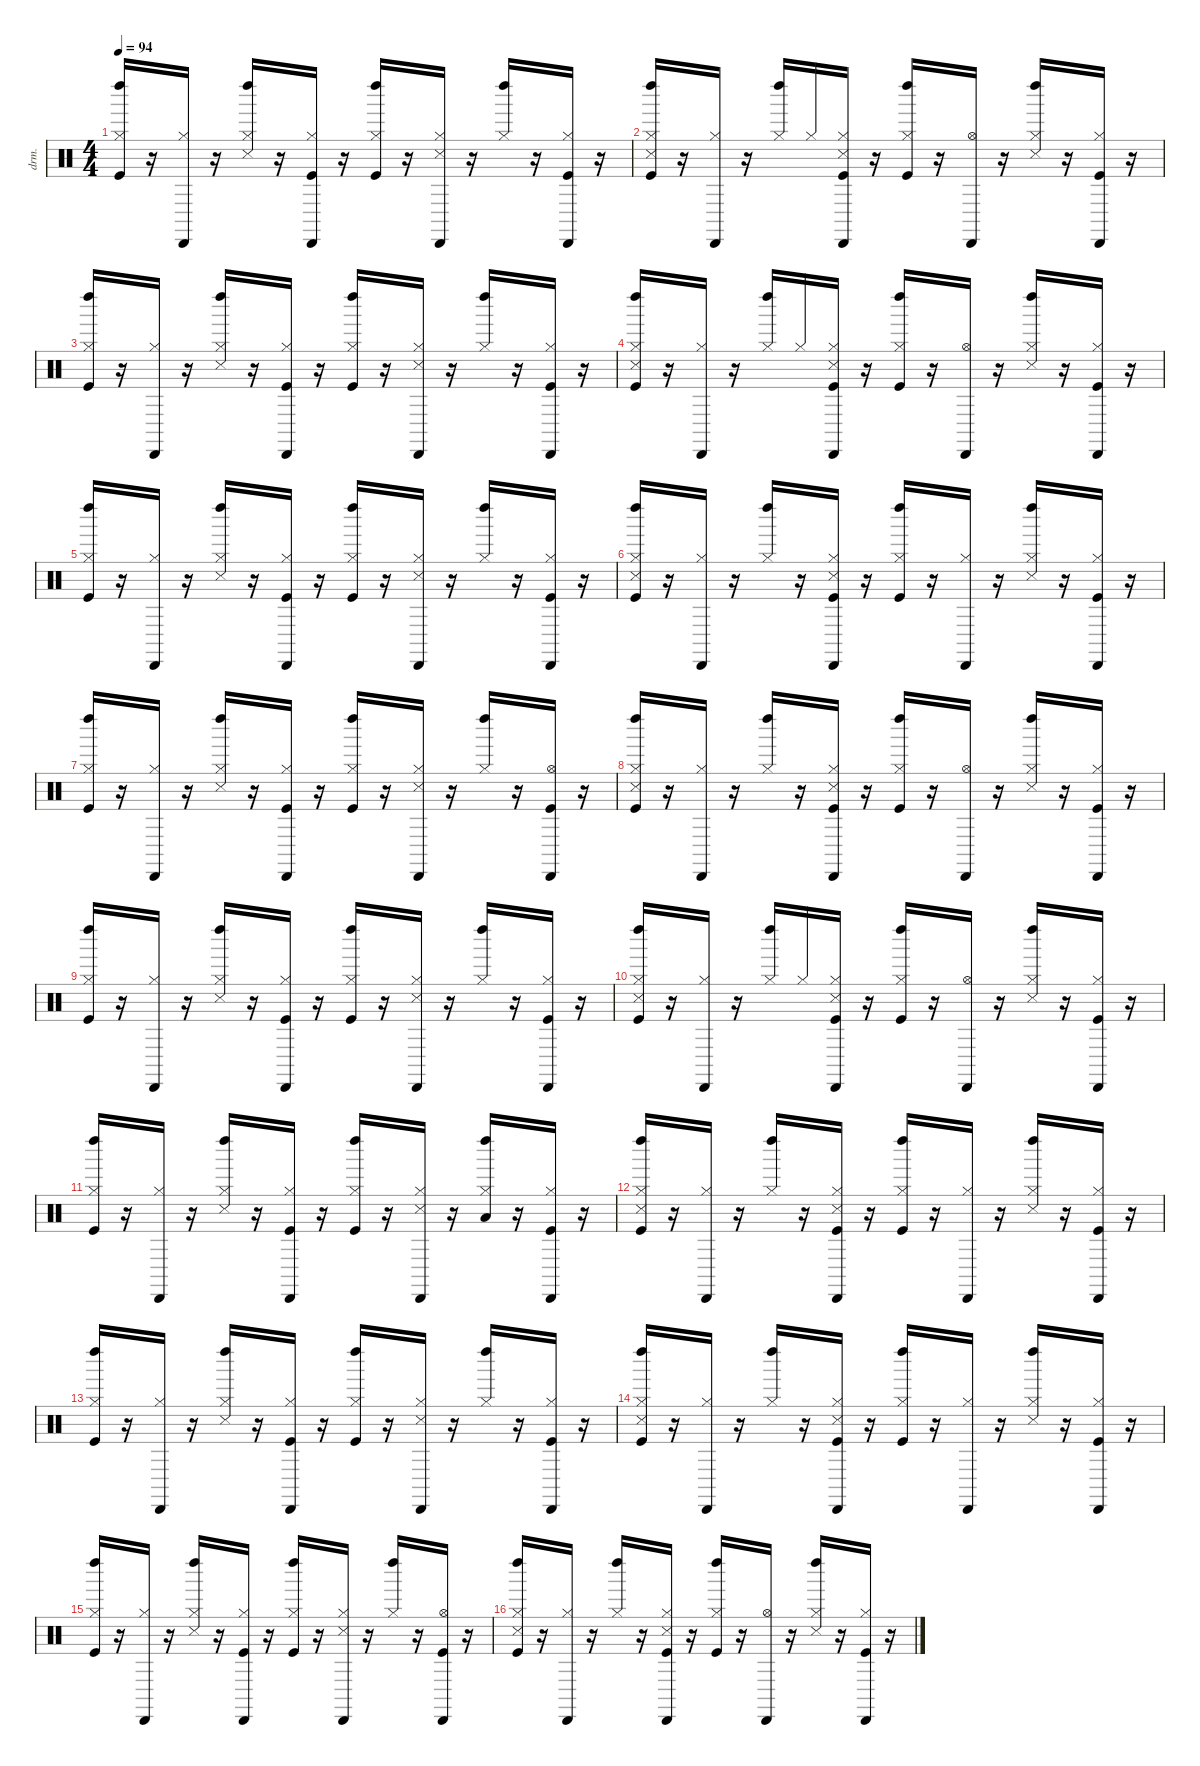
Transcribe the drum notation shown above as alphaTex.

\defaultSystemsLayout 4
\hideDynamics
\bracketExtendMode nobrackets
\otherSystemsTrackNameOrientation horizontal
\track ("Drums" "drm.") {instrument percussion}
\staff {score}
\articulation defaults
\ts (4 4)
\tempo 94
\clef neutral
\ks c
("Left Maraca (hit)" "Hi-Hat (closed)" "Kick (hit)").16{dy mf beam Up} r.16{beam Up} ("Cabasa (hit)" "Hi-Hat (closed)").16{dy p beam Up} r.16{beam Up} ("Left Maraca (hit)" "Hi-Hat (closed)" "Snare (side stick) 3").16{dy mf beam Up} r.16{beam Up} ("Cabasa (hit)" "Hi-Hat (closed)" "Kick (hit)").16{dy p beam Up} r.16{beam Up} ("Left Maraca (hit)" "Hi-Hat (closed)" "Kick (hit)").16{dy mf beam Up} r.16{beam Up} ("Cabasa (hit)" "Hi-Hat (closed)" "Snare (side stick) 3").16{dy p beam Up} r.16{beam Up} ("Left Maraca (hit)" "Hi-Hat (closed)").16{dy mf beam Up} r.16{beam Up} ("Cabasa (hit)" "Hi-Hat (closed)" "Kick (hit)").16{dy p beam Up} r.16{beam Up} |
("Left Maraca (hit)" "Hi-Hat (closed)" "Snare (side stick) 3" "Kick (hit)").16{dy mf beam Up} r.16{beam Up} ("Cabasa (hit)" "Hi-Hat (closed)").16{dy p beam Up} r.16{beam Up} ("Left Maraca (hit)" "Hi-Hat (closed)").16{dy mf beam Up} "Hi-Hat (closed)".16{beam Up} ("Cabasa (hit)" "Hi-Hat (closed)" "Snare (side stick) 3" "Kick (hit)").16{dy p beam Up} r.16{beam Up} ("Left Maraca (hit)" "Hi-Hat (closed)" "Kick (hit)").16{dy mf beam Up} r.16{beam Up} ("Cabasa (hit)" "Hi-Hat (open)").16{dy p beam Up} r.16{beam Up} ("Left Maraca (hit)" "Hi-Hat (closed)" "Snare (side stick) 3").16{dy mf beam Up} r.16{beam Up} ("Cabasa (hit)" "Hi-Hat (closed)" "Kick (hit)").16{dy p beam Up} r.16{beam Up} |
("Left Maraca (hit)" "Hi-Hat (closed)" "Kick (hit)").16{dy mf beam Up} r.16{beam Up} ("Cabasa (hit)" "Hi-Hat (closed)").16{dy p beam Up} r.16{beam Up} ("Left Maraca (hit)" "Hi-Hat (closed)" "Snare (side stick) 3").16{dy mf beam Up} r.16{beam Up} ("Cabasa (hit)" "Hi-Hat (closed)" "Kick (hit)").16{dy p beam Up} r.16{beam Up} ("Left Maraca (hit)" "Hi-Hat (closed)" "Kick (hit)").16{dy mf beam Up} r.16{beam Up} ("Cabasa (hit)" "Hi-Hat (closed)" "Snare (side stick) 3").16{dy p beam Up} r.16{beam Up} ("Left Maraca (hit)" "Hi-Hat (closed)").16{dy mf beam Up} r.16{beam Up} ("Cabasa (hit)" "Hi-Hat (closed)" "Kick (hit)").16{dy p beam Up} r.16{beam Up} |
("Left Maraca (hit)" "Hi-Hat (closed)" "Snare (side stick) 3" "Kick (hit)").16{dy mf beam Up} r.16{beam Up} ("Cabasa (hit)" "Hi-Hat (closed)").16{dy p beam Up} r.16{beam Up} ("Left Maraca (hit)" "Hi-Hat (closed)").16{dy mf beam Up} "Hi-Hat (closed)".16{beam Up} ("Cabasa (hit)" "Hi-Hat (closed)" "Snare (side stick) 3" "Kick (hit)").16{dy p beam Up} r.16{beam Up} ("Left Maraca (hit)" "Hi-Hat (closed)" "Kick (hit)").16{dy mf beam Up} r.16{beam Up} ("Cabasa (hit)" "Hi-Hat (open)").16{dy p beam Up} r.16{beam Up} ("Left Maraca (hit)" "Hi-Hat (closed)" "Snare (side stick) 3").16{dy mf beam Up} r.16{beam Up} ("Cabasa (hit)" "Hi-Hat (closed)" "Kick (hit)").16{dy p beam Up} r.16{beam Up} |
("Left Maraca (hit)" "Hi-Hat (closed)" "Kick (hit)").16{dy mf beam Up} r.16{beam Up} ("Cabasa (hit)" "Hi-Hat (closed)").16{dy p beam Up} r.16{beam Up} ("Left Maraca (hit)" "Hi-Hat (closed)" "Snare (side stick) 3").16{dy mf beam Up} r.16{beam Up} ("Cabasa (hit)" "Hi-Hat (closed)" "Kick (hit)").16{dy p beam Up} r.16{beam Up} ("Left Maraca (hit)" "Hi-Hat (closed)" "Kick (hit)").16{dy mf beam Up} r.16{beam Up} ("Cabasa (hit)" "Hi-Hat (closed)" "Snare (side stick) 3").16{dy p beam Up} r.16{beam Up} ("Left Maraca (hit)" "Hi-Hat (closed)").16{dy mf beam Up} r.16{beam Up} ("Cabasa (hit)" "Hi-Hat (closed)" "Kick (hit)").16{dy p beam Up} r.16{beam Up} |
("Left Maraca (hit)" "Hi-Hat (closed)" "Snare (side stick) 3" "Kick (hit)").16{dy mf beam Up} r.16{beam Up} ("Cabasa (hit)" "Hi-Hat (closed)").16{dy p beam Up} r.16{beam Up} ("Left Maraca (hit)" "Hi-Hat (closed)").16{dy mf beam Up} r.16{beam Up} ("Cabasa (hit)" "Hi-Hat (closed)" "Snare (side stick) 3" "Kick (hit)").16{dy p beam Up} r.16{beam Up} ("Left Maraca (hit)" "Hi-Hat (closed)" "Kick (hit)").16{dy mf beam Up} r.16{beam Up} ("Cabasa (hit)" "Hi-Hat (closed)").16{dy p beam Up} r.16{beam Up} ("Left Maraca (hit)" "Hi-Hat (closed)" "Snare (side stick) 3").16{dy mf beam Up} r.16{beam Up} ("Cabasa (hit)" "Hi-Hat (closed)" "Kick (hit)").16{dy p beam Up} r.16{beam Up} |
("Left Maraca (hit)" "Hi-Hat (closed)" "Kick (hit)").16{dy mf beam Up} r.16{beam Up} ("Cabasa (hit)" "Hi-Hat (closed)").16{dy p beam Up} r.16{beam Up} ("Left Maraca (hit)" "Hi-Hat (closed)" "Snare (side stick) 3").16{dy mf beam Up} r.16{beam Up} ("Cabasa (hit)" "Hi-Hat (closed)" "Kick (hit)").16{dy p beam Up} r.16{beam Up} ("Left Maraca (hit)" "Hi-Hat (closed)" "Kick (hit)").16{dy mf beam Up} r.16{beam Up} ("Cabasa (hit)" "Hi-Hat (closed)" "Snare (side stick) 3").16{dy p beam Up} r.16{beam Up} ("Left Maraca (hit)" "Hi-Hat (closed)").16{dy mf beam Up} r.16{beam Up} ("Cabasa (hit)" "Hi-Hat (open)" "Kick (hit)").16{dy p beam Up} r.16{beam Up} |
("Left Maraca (hit)" "Hi-Hat (closed)" "Snare (side stick) 3" "Kick (hit)").16{dy mf beam Up} r.16{beam Up} ("Cabasa (hit)" "Hi-Hat (closed)").16{dy p beam Up} r.16{beam Up} ("Left Maraca (hit)" "Hi-Hat (closed)").16{dy mf beam Up} r.16{beam Up} ("Cabasa (hit)" "Hi-Hat (closed)" "Snare (side stick) 3" "Kick (hit)").16{dy p beam Up} r.16{beam Up} ("Left Maraca (hit)" "Hi-Hat (closed)" "Kick (hit)").16{dy mf beam Up} r.16{beam Up} ("Cabasa (hit)" "Hi-Hat (open)").16{dy p beam Up} r.16{beam Up} ("Left Maraca (hit)" "Hi-Hat (closed)" "Snare (side stick) 3").16{dy mf beam Up} r.16{beam Up} ("Cabasa (hit)" "Hi-Hat (closed)" "Kick (hit)").16{dy p beam Up} r.16{beam Up} |
("Left Maraca (hit)" "Hi-Hat (closed)" "Kick (hit)").16{dy mf beam Up} r.16{beam Up} ("Cabasa (hit)" "Hi-Hat (closed)").16{dy p beam Up} r.16{beam Up} ("Left Maraca (hit)" "Hi-Hat (closed)" "Snare (side stick) 3").16{dy mf beam Up} r.16{beam Up} ("Cabasa (hit)" "Hi-Hat (closed)" "Kick (hit)").16{dy p beam Up} r.16{beam Up} ("Left Maraca (hit)" "Hi-Hat (closed)" "Kick (hit)").16{dy mf beam Up} r.16{beam Up} ("Cabasa (hit)" "Hi-Hat (closed)" "Snare (side stick) 3").16{dy p beam Up} r.16{beam Up} ("Left Maraca (hit)" "Hi-Hat (closed)").16{dy mf beam Up} r.16{beam Up} ("Cabasa (hit)" "Hi-Hat (closed)" "Kick (hit)").16{dy p beam Up} r.16{beam Up} |
("Left Maraca (hit)" "Hi-Hat (closed)" "Snare (side stick) 3" "Kick (hit)").16{dy mf beam Up} r.16{beam Up} ("Cabasa (hit)" "Hi-Hat (closed)").16{dy p beam Up} r.16{beam Up} ("Left Maraca (hit)" "Hi-Hat (closed)").16{dy mf beam Up} "Hi-Hat (closed)".16{beam Up} ("Cabasa (hit)" "Hi-Hat (closed)" "Snare (side stick) 3" "Kick (hit)").16{dy p beam Up} r.16{beam Up} ("Left Maraca (hit)" "Hi-Hat (closed)" "Kick (hit)").16{dy mf beam Up} r.16{beam Up} ("Cabasa (hit)" "Hi-Hat (open)").16{dy p beam Up} r.16{beam Up} ("Left Maraca (hit)" "Hi-Hat (closed)" "Snare (side stick) 3").16{dy mf beam Up} r.16{beam Up} ("Cabasa (hit)" "Hi-Hat (closed)" "Kick (hit)").16{dy p beam Up} r.16{beam Up} |
("Left Maraca (hit)" "Hi-Hat (closed)" "Kick (hit)").16{dy mf beam Up} r.16{beam Up} ("Cabasa (hit)" "Hi-Hat (closed)").16{dy p beam Up} r.16{beam Up} ("Left Maraca (hit)" "Hi-Hat (closed)" "Snare (side stick) 3").16{dy mf beam Up} r.16{beam Up} ("Cabasa (hit)" "Hi-Hat (closed)" "Kick (hit)").16{dy p beam Up} r.16{beam Up} ("Left Maraca (hit)" "Hi-Hat (closed)" "Kick (hit)").16{dy mf beam Up} r.16{beam Up} ("Cabasa (hit)" "Hi-Hat (closed)" "Snare (side stick) 3").16{dy p beam Up} r.16{beam Up} ("Left Maraca (hit)" "Low Tom (hit)" "Hi-Hat (closed)").16{dy mf beam Up} r.16{beam Up} ("Cabasa (hit)" "Hi-Hat (closed)" "Kick (hit)").16{dy p beam Up} r.16{beam Up} |
("Left Maraca (hit)" "Hi-Hat (closed)" "Snare (side stick) 3" "Kick (hit)").16{dy mf beam Up} r.16{beam Up} ("Cabasa (hit)" "Hi-Hat (closed)").16{dy p beam Up} r.16{beam Up} ("Left Maraca (hit)" "Hi-Hat (closed)").16{dy mf beam Up} r.16{beam Up} ("Cabasa (hit)" "Hi-Hat (closed)" "Snare (side stick) 3" "Kick (hit)").16{dy p beam Up} r.16{beam Up} ("Left Maraca (hit)" "Hi-Hat (closed)" "Kick (hit)").16{dy mf beam Up} r.16{beam Up} ("Cabasa (hit)" "Hi-Hat (closed)").16{dy p beam Up} r.16{beam Up} ("Left Maraca (hit)" "Hi-Hat (closed)" "Snare (side stick) 3").16{dy mf beam Up} r.16{beam Up} ("Cabasa (hit)" "Hi-Hat (closed)" "Kick (hit)").16{dy p beam Up} r.16{beam Up} |
("Left Maraca (hit)" "Hi-Hat (closed)" "Kick (hit)").16{dy mf beam Up} r.16{beam Up} ("Cabasa (hit)" "Hi-Hat (closed)").16{dy p beam Up} r.16{beam Up} ("Left Maraca (hit)" "Hi-Hat (closed)" "Snare (side stick) 3").16{dy mf beam Up} r.16{beam Up} ("Cabasa (hit)" "Hi-Hat (closed)" "Kick (hit)").16{dy p beam Up} r.16{beam Up} ("Left Maraca (hit)" "Hi-Hat (closed)" "Kick (hit)").16{dy mf beam Up} r.16{beam Up} ("Cabasa (hit)" "Hi-Hat (closed)" "Snare (side stick) 3").16{dy p beam Up} r.16{beam Up} ("Left Maraca (hit)" "Hi-Hat (closed)").16{dy mf beam Up} r.16{beam Up} ("Cabasa (hit)" "Hi-Hat (closed)" "Kick (hit)").16{dy p beam Up} r.16{beam Up} |
("Left Maraca (hit)" "Hi-Hat (closed)" "Snare (side stick) 3" "Kick (hit)").16{dy mf beam Up} r.16{beam Up} ("Cabasa (hit)" "Hi-Hat (closed)").16{dy p beam Up} r.16{beam Up} ("Left Maraca (hit)" "Hi-Hat (closed)").16{dy mf beam Up} r.16{beam Up} ("Cabasa (hit)" "Hi-Hat (closed)" "Snare (side stick) 3" "Kick (hit)").16{dy p beam Up} r.16{beam Up} ("Left Maraca (hit)" "Hi-Hat (closed)" "Kick (hit)").16{dy mf beam Up} r.16{beam Up} ("Cabasa (hit)" "Hi-Hat (closed)").16{dy p beam Up} r.16{beam Up} ("Left Maraca (hit)" "Hi-Hat (closed)" "Snare (side stick) 3").16{dy mf beam Up} r.16{beam Up} ("Cabasa (hit)" "Hi-Hat (closed)" "Kick (hit)").16{dy p beam Up} r.16{beam Up} |
("Left Maraca (hit)" "Hi-Hat (closed)" "Kick (hit)").16{dy mf beam Up} r.16{beam Up} ("Cabasa (hit)" "Hi-Hat (closed)").16{dy p beam Up} r.16{beam Up} ("Left Maraca (hit)" "Hi-Hat (closed)" "Snare (side stick) 3").16{dy mf beam Up} r.16{beam Up} ("Cabasa (hit)" "Hi-Hat (closed)" "Kick (hit)").16{dy p beam Up} r.16{beam Up} ("Left Maraca (hit)" "Hi-Hat (closed)" "Kick (hit)").16{dy mf beam Up} r.16{beam Up} ("Cabasa (hit)" "Hi-Hat (closed)" "Snare (side stick) 3").16{dy p beam Up} r.16{beam Up} ("Left Maraca (hit)" "Hi-Hat (closed)").16{dy mf beam Up} r.16{beam Up} ("Cabasa (hit)" "Hi-Hat (open)" "Kick (hit)").16{dy p beam Up} r.16{beam Up} |
("Left Maraca (hit)" "Hi-Hat (closed)" "Snare (side stick) 3" "Kick (hit)").16{dy mf beam Up} r.16{beam Up} ("Cabasa (hit)" "Hi-Hat (closed)").16{dy p beam Up} r.16{beam Up} ("Left Maraca (hit)" "Hi-Hat (closed)").16{dy mf beam Up} r.16{beam Up} ("Cabasa (hit)" "Hi-Hat (closed)" "Snare (side stick) 3" "Kick (hit)").16{dy p beam Up} r.16{beam Up} ("Left Maraca (hit)" "Hi-Hat (closed)" "Kick (hit)").16{dy mf beam Up} r.16{beam Up} ("Cabasa (hit)" "Hi-Hat (open)").16{dy p beam Up} r.16{beam Up} ("Left Maraca (hit)" "Hi-Hat (closed)" "Snare (side stick) 3").16{dy mf beam Up} r.16{beam Up} ("Cabasa (hit)" "Hi-Hat (closed)" "Kick (hit)").16{dy p beam Up} r.16{beam Up}
